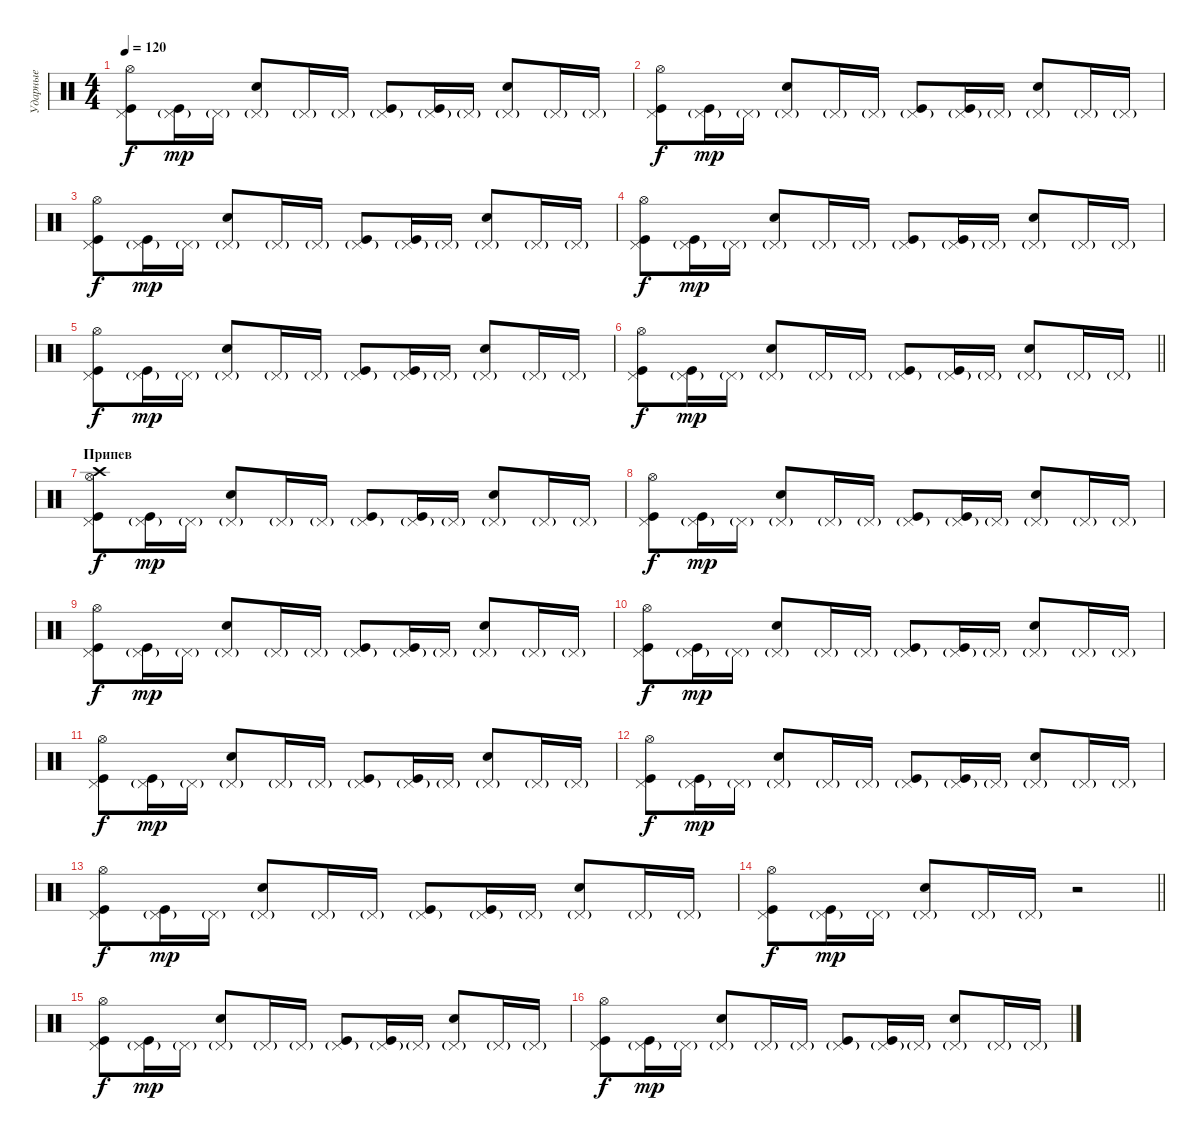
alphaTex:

\track ("Ударные" "Ударные") {instrument percussion}
\staff {score}
\articulation defaults
\ts (4 4)
\tempo 120
\clef neutral
\ks c
("Hi-Hat (open)" "Kick (hit)" "Pedal Hi-Hat (hit)").8{dy f} ("Kick (hit)" "Pedal Hi-Hat (hit)"{g}).16{dy mp} "Pedal Hi-Hat (hit)"{g}.16 ("Electric Snare (hit)" "Pedal Hi-Hat (hit)"{g}).8 "Pedal Hi-Hat (hit)"{g}.16 "Pedal Hi-Hat (hit)"{g}.16 ("Kick (hit)" "Pedal Hi-Hat (hit)"{g}).8 ("Kick (hit)" "Pedal Hi-Hat (hit)"{g}).16 "Pedal Hi-Hat (hit)"{g}.16 ("Electric Snare (hit)" "Pedal Hi-Hat (hit)"{g}).8 "Pedal Hi-Hat (hit)"{g}.16 "Pedal Hi-Hat (hit)"{g}.16 |
("Hi-Hat (open)" "Kick (hit)" "Pedal Hi-Hat (hit)").8{dy f} ("Kick (hit)" "Pedal Hi-Hat (hit)"{g}).16{dy mp} "Pedal Hi-Hat (hit)"{g}.16 ("Electric Snare (hit)" "Pedal Hi-Hat (hit)"{g}).8 "Pedal Hi-Hat (hit)"{g}.16 "Pedal Hi-Hat (hit)"{g}.16 ("Kick (hit)" "Pedal Hi-Hat (hit)"{g}).8 ("Kick (hit)" "Pedal Hi-Hat (hit)"{g}).16 "Pedal Hi-Hat (hit)"{g}.16 ("Electric Snare (hit)" "Pedal Hi-Hat (hit)"{g}).8 "Pedal Hi-Hat (hit)"{g}.16 "Pedal Hi-Hat (hit)"{g}.16 |
("Hi-Hat (open)" "Kick (hit)" "Pedal Hi-Hat (hit)").8{dy f} ("Kick (hit)" "Pedal Hi-Hat (hit)"{g}).16{dy mp} "Pedal Hi-Hat (hit)"{g}.16 ("Electric Snare (hit)" "Pedal Hi-Hat (hit)"{g}).8 "Pedal Hi-Hat (hit)"{g}.16 "Pedal Hi-Hat (hit)"{g}.16 ("Kick (hit)" "Pedal Hi-Hat (hit)"{g}).8 ("Kick (hit)" "Pedal Hi-Hat (hit)"{g}).16 "Pedal Hi-Hat (hit)"{g}.16 ("Electric Snare (hit)" "Pedal Hi-Hat (hit)"{g}).8 "Pedal Hi-Hat (hit)"{g}.16 "Pedal Hi-Hat (hit)"{g}.16 |
("Hi-Hat (open)" "Kick (hit)" "Pedal Hi-Hat (hit)").8{dy f} ("Kick (hit)" "Pedal Hi-Hat (hit)"{g}).16{dy mp} "Pedal Hi-Hat (hit)"{g}.16 ("Electric Snare (hit)" "Pedal Hi-Hat (hit)"{g}).8 "Pedal Hi-Hat (hit)"{g}.16 "Pedal Hi-Hat (hit)"{g}.16 ("Kick (hit)" "Pedal Hi-Hat (hit)"{g}).8 ("Kick (hit)" "Pedal Hi-Hat (hit)"{g}).16 "Pedal Hi-Hat (hit)"{g}.16 ("Electric Snare (hit)" "Pedal Hi-Hat (hit)"{g}).8 "Pedal Hi-Hat (hit)"{g}.16 "Pedal Hi-Hat (hit)"{g}.16 |
("Hi-Hat (open)" "Kick (hit)" "Pedal Hi-Hat (hit)").8{dy f} ("Kick (hit)" "Pedal Hi-Hat (hit)"{g}).16{dy mp} "Pedal Hi-Hat (hit)"{g}.16 ("Electric Snare (hit)" "Pedal Hi-Hat (hit)"{g}).8 "Pedal Hi-Hat (hit)"{g}.16 "Pedal Hi-Hat (hit)"{g}.16 ("Kick (hit)" "Pedal Hi-Hat (hit)"{g}).8 ("Kick (hit)" "Pedal Hi-Hat (hit)"{g}).16 "Pedal Hi-Hat (hit)"{g}.16 ("Electric Snare (hit)" "Pedal Hi-Hat (hit)"{g}).8 "Pedal Hi-Hat (hit)"{g}.16 "Pedal Hi-Hat (hit)"{g}.16 |
\barLineRight lightlight
("Hi-Hat (open)" "Kick (hit)" "Pedal Hi-Hat (hit)").8{dy f} ("Kick (hit)" "Pedal Hi-Hat (hit)"{g}).16{dy mp} "Pedal Hi-Hat (hit)"{g}.16 ("Electric Snare (hit)" "Pedal Hi-Hat (hit)"{g}).8 "Pedal Hi-Hat (hit)"{g}.16 "Pedal Hi-Hat (hit)"{g}.16 ("Kick (hit)" "Pedal Hi-Hat (hit)"{g}).8 ("Kick (hit)" "Pedal Hi-Hat (hit)"{g}).16 "Pedal Hi-Hat (hit)"{g}.16 ("Electric Snare (hit)" "Pedal Hi-Hat (hit)"{g}).8 "Pedal Hi-Hat (hit)"{g}.16 "Pedal Hi-Hat (hit)"{g}.16 |
\section ("" "Припев")
("Hi-Hat (open)" "Crash high (hit)" "Kick (hit)" "Pedal Hi-Hat (hit)").8{dy f} ("Kick (hit)" "Pedal Hi-Hat (hit)"{g}).16{dy mp} "Pedal Hi-Hat (hit)"{g}.16 ("Electric Snare (hit)" "Pedal Hi-Hat (hit)"{g}).8 "Pedal Hi-Hat (hit)"{g}.16 "Pedal Hi-Hat (hit)"{g}.16 ("Kick (hit)" "Pedal Hi-Hat (hit)"{g}).8 ("Kick (hit)" "Pedal Hi-Hat (hit)"{g}).16 "Pedal Hi-Hat (hit)"{g}.16 ("Electric Snare (hit)" "Pedal Hi-Hat (hit)"{g}).8 "Pedal Hi-Hat (hit)"{g}.16 "Pedal Hi-Hat (hit)"{g}.16 |
("Hi-Hat (open)" "Kick (hit)" "Pedal Hi-Hat (hit)").8{dy f} ("Kick (hit)" "Pedal Hi-Hat (hit)"{g}).16{dy mp} "Pedal Hi-Hat (hit)"{g}.16 ("Electric Snare (hit)" "Pedal Hi-Hat (hit)"{g}).8 "Pedal Hi-Hat (hit)"{g}.16 "Pedal Hi-Hat (hit)"{g}.16 ("Kick (hit)" "Pedal Hi-Hat (hit)"{g}).8 ("Kick (hit)" "Pedal Hi-Hat (hit)"{g}).16 "Pedal Hi-Hat (hit)"{g}.16 ("Electric Snare (hit)" "Pedal Hi-Hat (hit)"{g}).8 "Pedal Hi-Hat (hit)"{g}.16 "Pedal Hi-Hat (hit)"{g}.16 |
("Hi-Hat (open)" "Kick (hit)" "Pedal Hi-Hat (hit)").8{dy f} ("Kick (hit)" "Pedal Hi-Hat (hit)"{g}).16{dy mp} "Pedal Hi-Hat (hit)"{g}.16 ("Electric Snare (hit)" "Pedal Hi-Hat (hit)"{g}).8 "Pedal Hi-Hat (hit)"{g}.16 "Pedal Hi-Hat (hit)"{g}.16 ("Kick (hit)" "Pedal Hi-Hat (hit)"{g}).8 ("Kick (hit)" "Pedal Hi-Hat (hit)"{g}).16 "Pedal Hi-Hat (hit)"{g}.16 ("Electric Snare (hit)" "Pedal Hi-Hat (hit)"{g}).8 "Pedal Hi-Hat (hit)"{g}.16 "Pedal Hi-Hat (hit)"{g}.16 |
("Hi-Hat (open)" "Kick (hit)" "Pedal Hi-Hat (hit)").8{dy f} ("Kick (hit)" "Pedal Hi-Hat (hit)"{g}).16{dy mp} "Pedal Hi-Hat (hit)"{g}.16 ("Electric Snare (hit)" "Pedal Hi-Hat (hit)"{g}).8 "Pedal Hi-Hat (hit)"{g}.16 "Pedal Hi-Hat (hit)"{g}.16 ("Kick (hit)" "Pedal Hi-Hat (hit)"{g}).8 ("Kick (hit)" "Pedal Hi-Hat (hit)"{g}).16 "Pedal Hi-Hat (hit)"{g}.16 ("Electric Snare (hit)" "Pedal Hi-Hat (hit)"{g}).8 "Pedal Hi-Hat (hit)"{g}.16 "Pedal Hi-Hat (hit)"{g}.16 |
("Hi-Hat (open)" "Kick (hit)" "Pedal Hi-Hat (hit)").8{dy f} ("Kick (hit)" "Pedal Hi-Hat (hit)"{g}).16{dy mp} "Pedal Hi-Hat (hit)"{g}.16 ("Electric Snare (hit)" "Pedal Hi-Hat (hit)"{g}).8 "Pedal Hi-Hat (hit)"{g}.16 "Pedal Hi-Hat (hit)"{g}.16 ("Kick (hit)" "Pedal Hi-Hat (hit)"{g}).8 ("Kick (hit)" "Pedal Hi-Hat (hit)"{g}).16 "Pedal Hi-Hat (hit)"{g}.16 ("Electric Snare (hit)" "Pedal Hi-Hat (hit)"{g}).8 "Pedal Hi-Hat (hit)"{g}.16 "Pedal Hi-Hat (hit)"{g}.16 |
("Hi-Hat (open)" "Kick (hit)" "Pedal Hi-Hat (hit)").8{dy f} ("Kick (hit)" "Pedal Hi-Hat (hit)"{g}).16{dy mp} "Pedal Hi-Hat (hit)"{g}.16 ("Electric Snare (hit)" "Pedal Hi-Hat (hit)"{g}).8 "Pedal Hi-Hat (hit)"{g}.16 "Pedal Hi-Hat (hit)"{g}.16 ("Kick (hit)" "Pedal Hi-Hat (hit)"{g}).8 ("Kick (hit)" "Pedal Hi-Hat (hit)"{g}).16 "Pedal Hi-Hat (hit)"{g}.16 ("Electric Snare (hit)" "Pedal Hi-Hat (hit)"{g}).8 "Pedal Hi-Hat (hit)"{g}.16 "Pedal Hi-Hat (hit)"{g}.16 |
("Hi-Hat (open)" "Kick (hit)" "Pedal Hi-Hat (hit)").8{dy f} ("Kick (hit)" "Pedal Hi-Hat (hit)"{g}).16{dy mp} "Pedal Hi-Hat (hit)"{g}.16 ("Electric Snare (hit)" "Pedal Hi-Hat (hit)"{g}).8 "Pedal Hi-Hat (hit)"{g}.16 "Pedal Hi-Hat (hit)"{g}.16 ("Kick (hit)" "Pedal Hi-Hat (hit)"{g}).8 ("Kick (hit)" "Pedal Hi-Hat (hit)"{g}).16 "Pedal Hi-Hat (hit)"{g}.16 ("Electric Snare (hit)" "Pedal Hi-Hat (hit)"{g}).8 "Pedal Hi-Hat (hit)"{g}.16 "Pedal Hi-Hat (hit)"{g}.16 |
\barLineRight lightlight
("Hi-Hat (open)" "Kick (hit)" "Pedal Hi-Hat (hit)").8{dy f} ("Kick (hit)" "Pedal Hi-Hat (hit)"{g}).16{dy mp} "Pedal Hi-Hat (hit)"{g}.16 ("Electric Snare (hit)" "Pedal Hi-Hat (hit)"{g}).8 "Pedal Hi-Hat (hit)"{g}.16 "Pedal Hi-Hat (hit)"{g}.16 r.2 |
("Hi-Hat (open)" "Kick (hit)" "Pedal Hi-Hat (hit)").8{dy f} ("Kick (hit)" "Pedal Hi-Hat (hit)"{g}).16{dy mp} "Pedal Hi-Hat (hit)"{g}.16 ("Electric Snare (hit)" "Pedal Hi-Hat (hit)"{g}).8 "Pedal Hi-Hat (hit)"{g}.16 "Pedal Hi-Hat (hit)"{g}.16 ("Kick (hit)" "Pedal Hi-Hat (hit)"{g}).8 ("Kick (hit)" "Pedal Hi-Hat (hit)"{g}).16 "Pedal Hi-Hat (hit)"{g}.16 ("Electric Snare (hit)" "Pedal Hi-Hat (hit)"{g}).8 "Pedal Hi-Hat (hit)"{g}.16 "Pedal Hi-Hat (hit)"{g}.16 |
("Hi-Hat (open)" "Kick (hit)" "Pedal Hi-Hat (hit)").8{dy f} ("Kick (hit)" "Pedal Hi-Hat (hit)"{g}).16{dy mp} "Pedal Hi-Hat (hit)"{g}.16 ("Electric Snare (hit)" "Pedal Hi-Hat (hit)"{g}).8 "Pedal Hi-Hat (hit)"{g}.16 "Pedal Hi-Hat (hit)"{g}.16 ("Kick (hit)" "Pedal Hi-Hat (hit)"{g}).8 ("Kick (hit)" "Pedal Hi-Hat (hit)"{g}).16 "Pedal Hi-Hat (hit)"{g}.16 ("Electric Snare (hit)" "Pedal Hi-Hat (hit)"{g}).8 "Pedal Hi-Hat (hit)"{g}.16 "Pedal Hi-Hat (hit)"{g}.16
